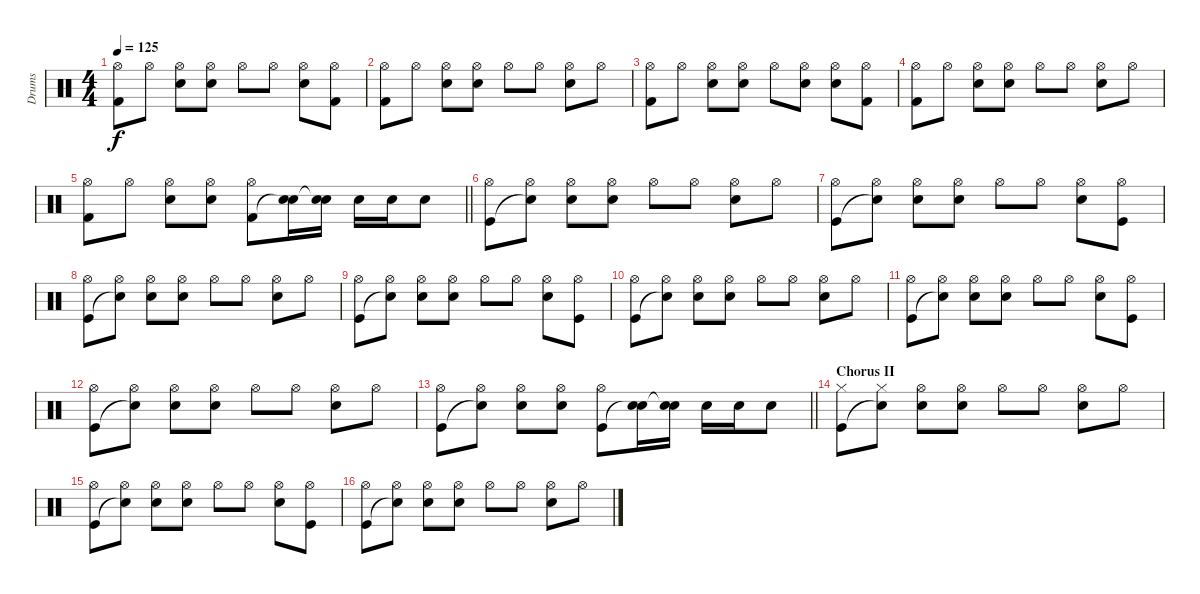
\track ("Drums" "Drums") {instrument percussion}
\staff {score}
\articulation defaults
\ts (4 4)
\tempo 125
\clef neutral
\ks c
("Hi-Hat (open)" "Kick (hit) 2").8{dy f} "Hi-Hat (open)".8 ("Hi-Hat (open)" "Snare (hit) 2").8 ("Hi-Hat (open)" "Snare (hit) 2").8 "Hi-Hat (open)".8 "Hi-Hat (open)".8 ("Hi-Hat (open)" "Snare (hit) 2").8 ("Hi-Hat (open)" "Kick (hit) 2").8 |
("Hi-Hat (open)" "Kick (hit) 2").8 "Hi-Hat (open)".8 ("Hi-Hat (open)" "Snare (hit) 2").8 ("Hi-Hat (open)" "Snare (hit) 2").8 "Hi-Hat (open)".8 "Hi-Hat (open)".8 ("Hi-Hat (open)" "Snare (hit) 2").8 "Hi-Hat (open)".8 |
("Hi-Hat (open)" "Kick (hit) 2").8 "Hi-Hat (open)".8 ("Hi-Hat (open)" "Snare (hit) 2").8 ("Hi-Hat (open)" "Snare (hit) 2").8 "Hi-Hat (open)".8 ("Hi-Hat (open)" "Snare (hit) 2").8 ("Hi-Hat (open)" "Snare (hit) 2").8 ("Hi-Hat (open)" "Kick (hit) 2").8 |
("Hi-Hat (open)" "Kick (hit) 2").8 "Hi-Hat (open)".8 ("Hi-Hat (open)" "Snare (hit) 2").8 ("Hi-Hat (open)" "Snare (hit) 2").8 "Hi-Hat (open)".8 "Hi-Hat (open)".8 ("Hi-Hat (open)" "Snare (hit) 2").8 "Hi-Hat (open)".8 |
\barLineRight lightlight
("Hi-Hat (open)" "Kick (hit) 2").8 "Hi-Hat (open)".8 ("Hi-Hat (open)" "Snare (hit) 2").8 ("Hi-Hat (open)" "Snare (hit) 2").8 ("Hi-Hat (open)" "Kick (hit) 2").8 ("Snare (hit) 2" "Snare (hit)"{t}).16 ("Snare (hit) 2" "Snare (hit)"{t}).16 "Snare (hit) 2".16 "Snare (hit) 2".16 "Snare (hit) 2".8 |
("Hi-Hat (open)" "Kick (hit)").8 ("Hi-Hat (open)" "Snare (hit)"{t}).8 ("Hi-Hat (open)" "Snare (hit) 2").8 ("Hi-Hat (open)" "Snare (hit) 2").8 "Hi-Hat (open)".8 "Hi-Hat (open)".8 ("Hi-Hat (open)" "Snare (hit) 2").8 "Hi-Hat (open)".8 |
("Hi-Hat (open)" "Kick (hit)").8 ("Hi-Hat (open)" "Snare (hit)"{t}).8 ("Hi-Hat (open)" "Snare (hit) 2").8 ("Hi-Hat (open)" "Snare (hit) 2").8 "Hi-Hat (open)".8 "Hi-Hat (open)".8 ("Hi-Hat (open)" "Snare (hit) 2").8 ("Hi-Hat (open)" "Kick (hit)").8 |
("Hi-Hat (open)" "Kick (hit)").8 ("Hi-Hat (open)" "Snare (hit)"{t}).8 ("Hi-Hat (open)" "Snare (hit) 2").8 ("Hi-Hat (open)" "Snare (hit) 2").8 "Hi-Hat (open)".8 "Hi-Hat (open)".8 ("Hi-Hat (open)" "Snare (hit) 2").8 "Hi-Hat (open)".8 |
("Hi-Hat (open)" "Kick (hit)").8 ("Hi-Hat (open)" "Snare (hit)"{t}).8 ("Hi-Hat (open)" "Snare (hit) 2").8 ("Hi-Hat (open)" "Snare (hit) 2").8 "Hi-Hat (open)".8 "Hi-Hat (open)".8 ("Hi-Hat (open)" "Snare (hit) 2").8 ("Hi-Hat (open)" "Kick (hit)").8 |
("Hi-Hat (open)" "Kick (hit)").8 ("Hi-Hat (open)" "Snare (hit)"{t}).8 ("Hi-Hat (open)" "Snare (hit) 2").8 ("Hi-Hat (open)" "Snare (hit) 2").8 "Hi-Hat (open)".8 "Hi-Hat (open)".8 ("Hi-Hat (open)" "Snare (hit) 2").8 "Hi-Hat (open)".8 |
("Hi-Hat (open)" "Kick (hit)").8 ("Hi-Hat (open)" "Snare (hit)"{t}).8 ("Hi-Hat (open)" "Snare (hit) 2").8 ("Hi-Hat (open)" "Snare (hit) 2").8 "Hi-Hat (open)".8 "Hi-Hat (open)".8 ("Hi-Hat (open)" "Snare (hit) 2").8 ("Hi-Hat (open)" "Kick (hit)").8 |
("Hi-Hat (open)" "Kick (hit)").8 ("Hi-Hat (open)" "Snare (hit)"{t}).8 ("Hi-Hat (open)" "Snare (hit) 2").8 ("Hi-Hat (open)" "Snare (hit) 2").8 "Hi-Hat (open)".8 "Hi-Hat (open)".8 ("Hi-Hat (open)" "Snare (hit) 2").8 "Hi-Hat (open)".8 |
\barLineRight lightlight
("Hi-Hat (open)" "Kick (hit)").8 ("Hi-Hat (open)" "Snare (hit)"{t}).8 ("Hi-Hat (open)" "Snare (hit) 2").8 ("Hi-Hat (open)" "Snare (hit) 2").8 ("Hi-Hat (open)" "Kick (hit)").8 ("Snare (hit) 2" "Snare (hit)"{t}).16 ("Snare (hit) 2" "Snare (hit)"{t}).16 "Snare (hit) 2".16 "Snare (hit) 2".16 "Snare (hit) 2".8 |
\section ("" "Chorus II")
("Hi-Hat (closed)" "Kick (hit)").8 ("Hi-Hat (closed)" "Snare (hit)"{t}).8 ("Hi-Hat (open)" "Snare (hit) 2").8 ("Hi-Hat (open)" "Snare (hit) 2").8 "Hi-Hat (open)".8 "Hi-Hat (open)".8 ("Hi-Hat (open)" "Snare (hit) 2").8 "Hi-Hat (open)".8 |
("Hi-Hat (open)" "Kick (hit)").8 ("Hi-Hat (open)" "Snare (hit)"{t}).8 ("Hi-Hat (open)" "Snare (hit) 2").8 ("Hi-Hat (open)" "Snare (hit) 2").8 "Hi-Hat (open)".8 "Hi-Hat (open)".8 ("Hi-Hat (open)" "Snare (hit) 2").8 ("Hi-Hat (open)" "Kick (hit)").8 |
("Hi-Hat (open)" "Kick (hit)").8 ("Hi-Hat (open)" "Snare (hit)"{t}).8 ("Hi-Hat (open)" "Snare (hit) 2").8 ("Hi-Hat (open)" "Snare (hit) 2").8 "Hi-Hat (open)".8 "Hi-Hat (open)".8 ("Hi-Hat (open)" "Snare (hit) 2").8 "Hi-Hat (open)".8
